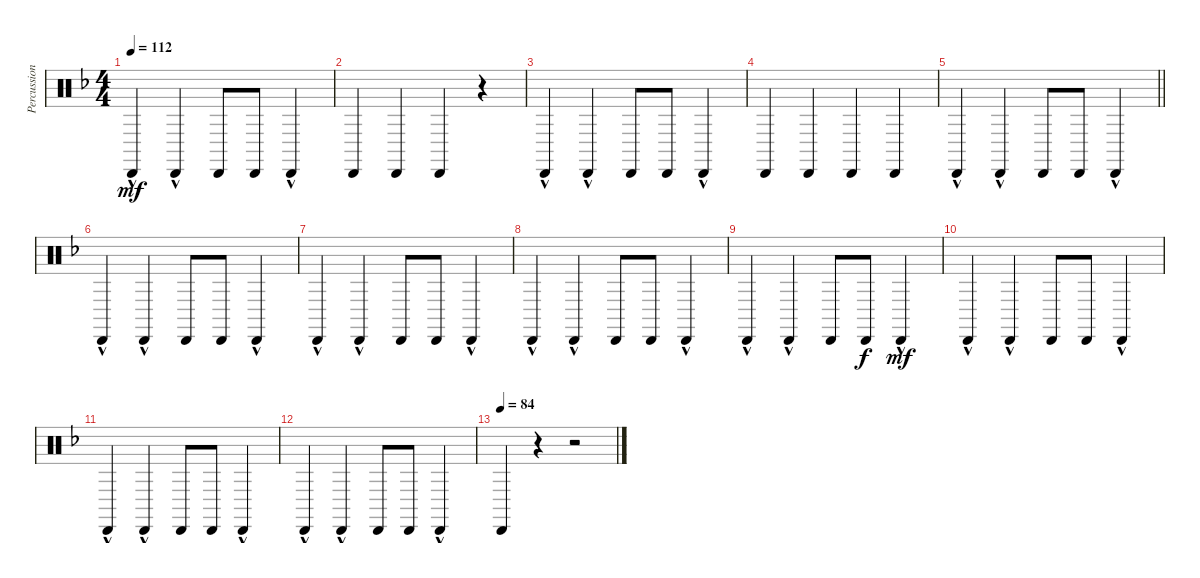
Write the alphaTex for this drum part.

\track ("Percussion" "Percussion") {instrument percussion}
\staff {score}
\articulation defaults
\ts (4 4)
\tempo 112
\clef neutral
\ks f "Cabasa (hit)"{hac}.4{dy mf} "Cabasa (hit)"{hac}.4 "Cabasa (hit)".8 "Cabasa (hit)".8 "Cabasa (hit)"{hac}.4
|
"Cabasa (hit)".4 "Cabasa (hit)".4 "Cabasa (hit)".4 r.4 |
"Cabasa (hit)"{hac}.4 "Cabasa (hit)"{hac}.4 "Cabasa (hit)".8 "Cabasa (hit)".8 "Cabasa (hit)"{hac}.4 |
"Cabasa (hit)".4 "Cabasa (hit)".4 "Cabasa (hit)".4 "Cabasa (hit)".4 |
\barLineRight lightlight "Cabasa (hit)"{hac}.4 "Cabasa (hit)"{hac}.4 "Cabasa (hit)".8 "Cabasa (hit)".8 "Cabasa (hit)"{hac}.4
|
"Cabasa (hit)"{hac}.4 "Cabasa (hit)"{hac}.4 "Cabasa (hit)".8 "Cabasa (hit)".8 "Cabasa (hit)"{hac}.4 |
"Cabasa (hit)"{hac}.4 "Cabasa (hit)"{hac}.4 "Cabasa (hit)".8 "Cabasa (hit)".8 "Cabasa (hit)"{hac}.4 |
"Cabasa (hit)"{hac}.4 "Cabasa (hit)"{hac}.4 "Cabasa (hit)".8 "Cabasa (hit)".8 "Cabasa (hit)"{hac}.4 |
"Cabasa (hit)"{hac}.4 "Cabasa (hit)"{hac}.4 "Cabasa (hit)".8 "Cabasa (hit)".8{dy f} "Cabasa (hit)"{hac}.4{dy mf} |
"Cabasa (hit)"{hac}.4 "Cabasa (hit)"{hac}.4 "Cabasa (hit)".8 "Cabasa (hit)".8 "Cabasa (hit)"{hac}.4 |
"Cabasa (hit)"{hac}.4 "Cabasa (hit)"{hac}.4 "Cabasa (hit)".8 "Cabasa (hit)".8 "Cabasa (hit)"{hac}.4 |
"Cabasa (hit)"{hac}.4 "Cabasa (hit)"{hac}.4 "Cabasa (hit)".8 "Cabasa (hit)".8 "Cabasa (hit)"{hac}.4 |
\tempo (84)
"Cabasa (hit)".4 r.4 r.2
